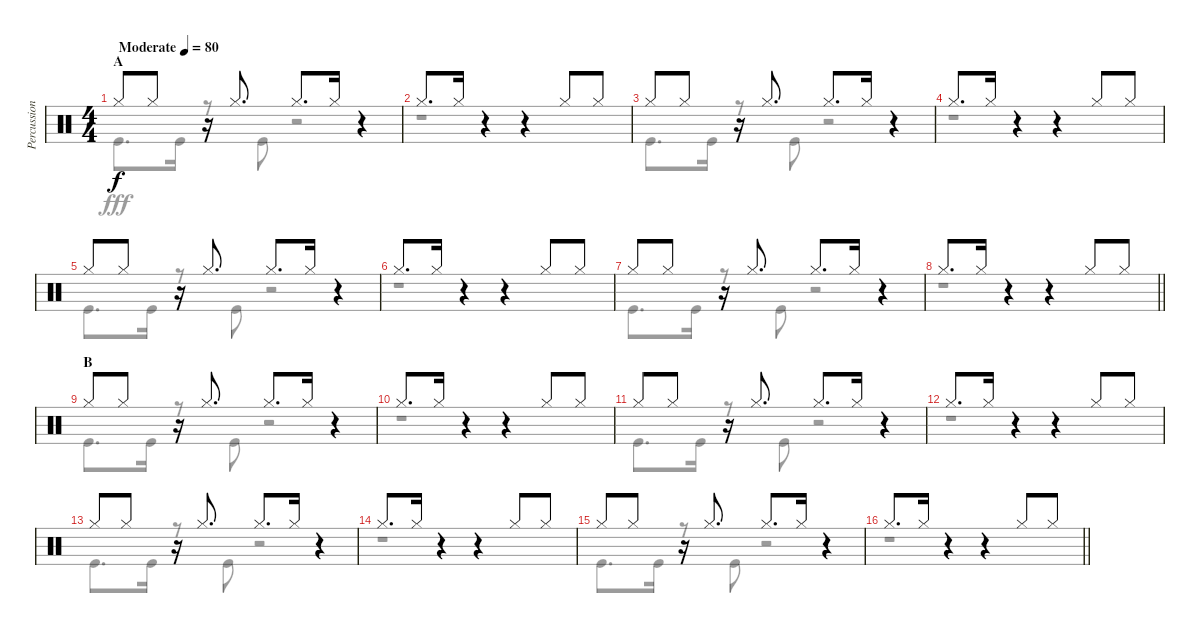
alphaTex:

\track ("Percussion" "Percussion") {instrument percussion}
\staff {score}
\articulation defaults
\voice
\ts (4 4)
\section ("" "A")
\tempo (80 "Moderate")
\clef neutral
\ks c "Hi-Hat (closed)".8{dy f} "Hi-Hat (closed)".8
r.16 "Hi-Hat (closed)".8{d} "Hi-Hat (closed)".8{d} "Hi-Hat (closed)".16 r.4 |
"Hi-Hat (closed)".8{d} "Hi-Hat (closed)".16 r.4 r.4 "Hi-Hat (closed)".8 "Hi-Hat (closed)".8 |
"Hi-Hat (closed)".8 "Hi-Hat (closed)".8 r.16 "Hi-Hat (closed)".8{d} "Hi-Hat (closed)".8{d} "Hi-Hat (closed)".16 r.4 |
"Hi-Hat (closed)".8{d} "Hi-Hat (closed)".16 r.4 r.4 "Hi-Hat (closed)".8 "Hi-Hat (closed)".8 |
"Hi-Hat (closed)".8 "Hi-Hat (closed)".8 r.16 "Hi-Hat (closed)".8{d} "Hi-Hat (closed)".8{d} "Hi-Hat (closed)".16 r.4 |
"Hi-Hat (closed)".8{d} "Hi-Hat (closed)".16 r.4 r.4 "Hi-Hat (closed)".8 "Hi-Hat (closed)".8 |
"Hi-Hat (closed)".8 "Hi-Hat (closed)".8 r.16 "Hi-Hat (closed)".8{d} "Hi-Hat (closed)".8{d} "Hi-Hat (closed)".16 r.4 |
\barLineRight lightlight "Hi-Hat (closed)".8{d} "Hi-Hat (closed)".16
r.4 r.4 "Hi-Hat (closed)".8 "Hi-Hat (closed)".8 |
\section ("" "B")
"Hi-Hat (closed)".8 "Hi-Hat (closed)".8 r.16 "Hi-Hat (closed)".8{d} "Hi-Hat (closed)".8{d} "Hi-Hat (closed)".16 r.4 |
"Hi-Hat (closed)".8{d} "Hi-Hat (closed)".16 r.4 r.4 "Hi-Hat (closed)".8 "Hi-Hat (closed)".8 |
"Hi-Hat (closed)".8 "Hi-Hat (closed)".8 r.16 "Hi-Hat (closed)".8{d} "Hi-Hat (closed)".8{d} "Hi-Hat (closed)".16 r.4 |
"Hi-Hat (closed)".8{d} "Hi-Hat (closed)".16 r.4 r.4 "Hi-Hat (closed)".8 "Hi-Hat (closed)".8 |
"Hi-Hat (closed)".8 "Hi-Hat (closed)".8 r.16 "Hi-Hat (closed)".8{d} "Hi-Hat (closed)".8{d} "Hi-Hat (closed)".16 r.4 |
"Hi-Hat (closed)".8{d} "Hi-Hat (closed)".16 r.4 r.4 "Hi-Hat (closed)".8 "Hi-Hat (closed)".8 |
"Hi-Hat (closed)".8 "Hi-Hat (closed)".8 r.16 "Hi-Hat (closed)".8{d} "Hi-Hat (closed)".8{d} "Hi-Hat (closed)".16 r.4 |
\barLineRight lightlight "Hi-Hat (closed)".8{d} "Hi-Hat (closed)".16
r.4 r.4 "Hi-Hat (closed)".8 "Hi-Hat (closed)".8
\voice
\clef neutral
\ottava regular
\simile none
\ks c "Kick (hit)".8{d dy fff} "Kick (hit)".16
r.8 "Kick (hit)".8 r.2 |
r.1 |
"Kick (hit)".8{d} "Kick (hit)".16 r.8 "Kick (hit)".8 r.2 |
r.1 |
"Kick (hit)".8{d} "Kick (hit)".16 r.8 "Kick (hit)".8 r.2 |
r.1 |
"Kick (hit)".8{d} "Kick (hit)".16 r.8 "Kick (hit)".8 r.2 |
\barLineRight lightlight
r.1 |
"Kick (hit)".8{d} "Kick (hit)".16 r.8 "Kick (hit)".8 r.2 |
r.1 |
"Kick (hit)".8{d} "Kick (hit)".16 r.8 "Kick (hit)".8 r.2 |
r.1 |
"Kick (hit)".8{d} "Kick (hit)".16 r.8 "Kick (hit)".8 r.2 |
r.1 |
"Kick (hit)".8{d} "Kick (hit)".16 r.8 "Kick (hit)".8 r.2 |
\barLineRight lightlight
r.1
